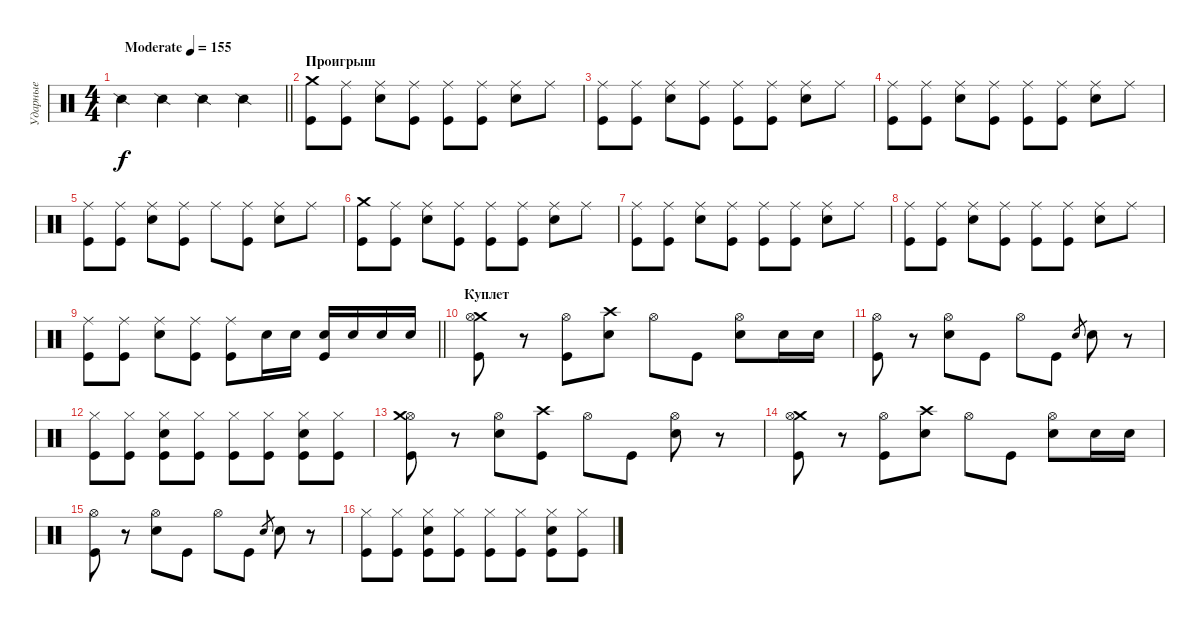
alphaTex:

\track ("Ударные" "Ударные") {instrument percussion}
\staff {score}
\articulation defaults
\ts (4 4)
\tempo (155 "Moderate")
\clef neutral
\barLineRight lightlight
\ks c "Snare (side stick) 2".4{dy f} "Snare (side stick) 2".4 "Snare (side stick) 2".4 "Snare (side stick) 2".4
|
\section ("" "Проигрыш")
("Crash medium (hit)" "Kick (hit)").8 ("Ride (middle)" "Kick (hit)").8 ("Ride (middle)" "Electric Snare (hit)").8 ("Ride (middle)" "Kick (hit)").8 ("Ride (middle)" "Kick (hit)").8 ("Ride (middle)" "Kick (hit)").8 ("Ride (middle)" "Electric Snare (hit)").8 "Ride (middle)".8 |
("Ride (middle)" "Kick (hit)").8 ("Ride (middle)" "Kick (hit)").8 ("Ride (middle)" "Electric Snare (hit)").8 ("Ride (middle)" "Kick (hit)").8 ("Ride (middle)" "Kick (hit)").8 ("Ride (middle)" "Kick (hit)").8 ("Ride (middle)" "Electric Snare (hit)").8 "Ride (middle)".8 |
("Ride (middle)" "Kick (hit)").8 ("Ride (middle)" "Kick (hit)").8 ("Ride (middle)" "Electric Snare (hit)").8 ("Ride (middle)" "Kick (hit)").8 ("Ride (middle)" "Kick (hit)").8 ("Ride (middle)" "Kick (hit)").8 ("Ride (middle)" "Electric Snare (hit)").8 "Ride (middle)".8 |
("Ride (middle)" "Kick (hit)").8 ("Ride (middle)" "Kick (hit)").8 ("Ride (middle)" "Electric Snare (hit)").8 ("Ride (middle)" "Kick (hit)").8 "Ride (middle)".8 ("Ride (middle)" "Kick (hit)").8 ("Ride (middle)" "Electric Snare (hit)").8 "Ride (middle)".8 |
("Crash medium (hit)" "Kick (hit)").8 ("Ride (middle)" "Kick (hit)").8 ("Ride (middle)" "Electric Snare (hit)").8 ("Ride (middle)" "Kick (hit)").8 ("Ride (middle)" "Kick (hit)").8 ("Ride (middle)" "Kick (hit)").8 ("Ride (middle)" "Electric Snare (hit)").8 "Ride (middle)".8 |
("Ride (middle)" "Kick (hit)").8 ("Ride (middle)" "Kick (hit)").8 ("Ride (middle)" "Electric Snare (hit)").8 ("Ride (middle)" "Kick (hit)").8 ("Ride (middle)" "Kick (hit)").8 ("Ride (middle)" "Kick (hit)").8 ("Ride (middle)" "Electric Snare (hit)").8 "Ride (middle)".8 |
("Ride (middle)" "Kick (hit)").8 ("Ride (middle)" "Kick (hit)").8 ("Ride (middle)" "Electric Snare (hit)").8 ("Ride (middle)" "Kick (hit)").8 ("Ride (middle)" "Kick (hit)").8 ("Ride (middle)" "Kick (hit)").8 ("Ride (middle)" "Electric Snare (hit)").8 "Ride (middle)".8 |
\barLineRight lightlight
("Ride (middle)" "Kick (hit)").8 ("Ride (middle)" "Kick (hit)").8 ("Ride (middle)" "Electric Snare (hit)").8 ("Ride (middle)" "Kick (hit)").8 ("Ride (middle)" "Kick (hit)").8 "Electric Snare (hit)".16 "Electric Snare (hit)".16 ("Electric Snare (hit)" "Kick (hit)").16 "Electric Snare (hit)".16 "Electric Snare (hit)".16 "Electric Snare (hit)".16 |
\section ("" "Куплет")
("Crash medium (hit)" "Hi-Hat (open)" "Kick (hit)").8 r.8 ("Hi-Hat (open)" "Kick (hit)").8 ("Crash high (hit)" "Electric Snare (hit)").8 "Hi-Hat (open)".8 "Kick (hit)".8 ("Hi-Hat (open)" "Electric Snare (hit)").8 "Electric Snare (hit)".16 "Electric Snare (hit)".16 |
("Hi-Hat (open)" "Kick (hit)").8 r.8 ("Hi-Hat (open)" "Electric Snare (hit)").8 "Kick (hit)".8 "Hi-Hat (open)".8 "Kick (hit)".8 "Electric Snare (hit)".8{gr} "Electric Snare (hit)".8 r.8 |
("Hi-Hat (closed)" "Kick (hit)").8 ("Hi-Hat (closed)" "Kick (hit)").8 ("Hi-Hat (closed)" "Kick (hit)" "Electric Snare (hit)").8 ("Hi-Hat (closed)" "Kick (hit)").8 ("Hi-Hat (closed)" "Kick (hit)").8 ("Hi-Hat (closed)" "Kick (hit)").8 ("Hi-Hat (closed)" "Kick (hit)" "Electric Snare (hit)").8 ("Hi-Hat (closed)" "Kick (hit)").8 |
("Hi-Hat (open)" "Kick (hit)" "Crash medium (hit)").8 r.8 ("Hi-Hat (open)" "Electric Snare (hit)").8 ("Kick (hit)" "Crash high (hit)").8 "Hi-Hat (open)".8 "Kick (hit)".8 ("Hi-Hat (open)" "Electric Snare (hit)").8 r.8 |
("Crash medium (hit)" "Hi-Hat (open)" "Kick (hit)").8 r.8 ("Hi-Hat (open)" "Kick (hit)").8 ("Crash high (hit)" "Electric Snare (hit)").8 "Hi-Hat (open)".8 "Kick (hit)".8 ("Hi-Hat (open)" "Electric Snare (hit)").8 "Electric Snare (hit)".16 "Electric Snare (hit)".16 |
("Hi-Hat (open)" "Kick (hit)").8 r.8 ("Hi-Hat (open)" "Electric Snare (hit)").8 "Kick (hit)".8 "Hi-Hat (open)".8 "Kick (hit)".8 "Electric Snare (hit)".8{gr} "Electric Snare (hit)".8 r.8 |
("Hi-Hat (closed)" "Kick (hit)").8 ("Hi-Hat (closed)" "Kick (hit)").8 ("Hi-Hat (closed)" "Kick (hit)" "Electric Snare (hit)").8 ("Hi-Hat (closed)" "Kick (hit)").8 ("Hi-Hat (closed)" "Kick (hit)").8 ("Hi-Hat (closed)" "Kick (hit)").8 ("Hi-Hat (closed)" "Kick (hit)" "Electric Snare (hit)").8 ("Hi-Hat (closed)" "Kick (hit)").8
